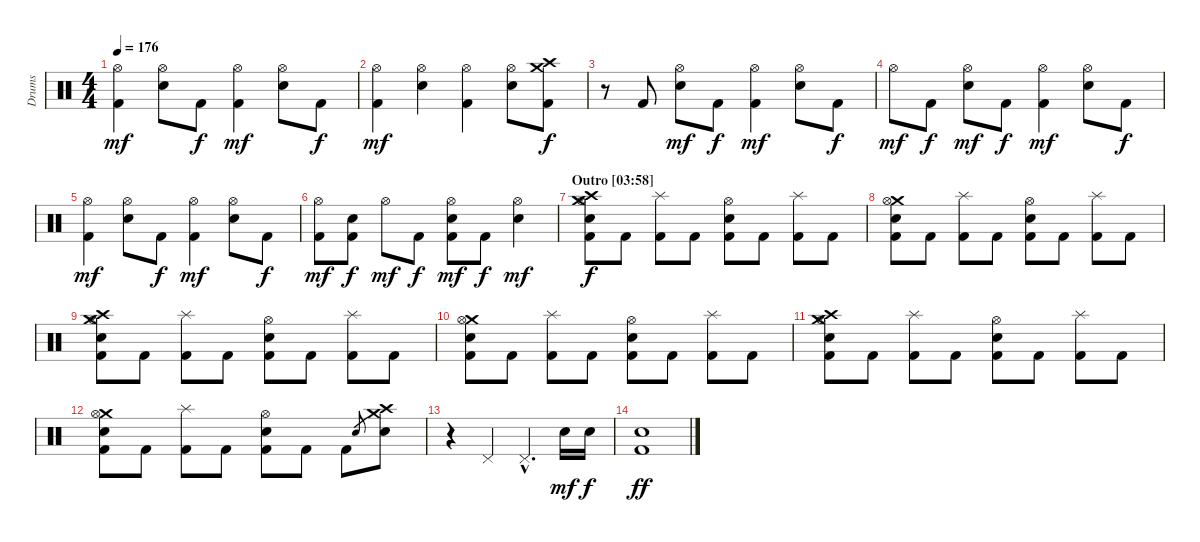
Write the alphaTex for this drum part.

\track ("Drums" "Drums") {instrument percussion}
\staff {score}
\articulation defaults
\ts (4 4)
\tempo 176
\clef neutral
\ks c
("Hi-Hat (open)" "Kick (hit) 2").4{dy mf} ("Hi-Hat (open)" "Electric Snare (hit)").8 "Kick (hit) 2".8{dy f} ("Hi-Hat (open)" "Kick (hit) 2").4{dy mf} ("Hi-Hat (open)" "Electric Snare (hit)").8 "Kick (hit) 2".8{dy f} |
("Hi-Hat (open)" "Kick (hit) 2").4{dy mf} ("Hi-Hat (open)" "Electric Snare (hit)").4 ("Hi-Hat (open)" "Kick (hit) 2").4 ("Hi-Hat (open)" "Electric Snare (hit)").8 ("Crash medium (hit)" "Crash high (hit)" "Kick (hit) 2").8{dy f} |
r.8 "Kick (hit) 2".8 ("Hi-Hat (open)" "Electric Snare (hit)").8{dy mf} "Kick (hit) 2".8{dy f} ("Hi-Hat (open)" "Kick (hit) 2").4{dy mf} ("Hi-Hat (open)" "Electric Snare (hit)").8 "Kick (hit) 2".8{dy f} |
"Hi-Hat (open)".8{dy mf} "Kick (hit) 2".8{dy f} ("Hi-Hat (open)" "Electric Snare (hit)").8{dy mf} "Kick (hit) 2".8{dy f} ("Hi-Hat (open)" "Kick (hit) 2").4{dy mf} ("Hi-Hat (open)" "Electric Snare (hit)").8 "Kick (hit) 2".8{dy f} |
("Hi-Hat (open)" "Kick (hit) 2").4{dy mf} ("Hi-Hat (open)" "Electric Snare (hit)").8 "Kick (hit) 2".8{dy f} ("Hi-Hat (open)" "Kick (hit) 2").4{dy mf} ("Hi-Hat (open)" "Electric Snare (hit)").8 "Kick (hit) 2".8{dy f} |
("Hi-Hat (open)" "Kick (hit) 2").8{dy mf} ("Electric Snare (hit)" "Kick (hit) 2").8{dy f} "Hi-Hat (open)".8{dy mf} "Kick (hit) 2".8{dy f} ("Hi-Hat (open)" "Electric Snare (hit)" "Kick (hit) 2").8{dy mf} "Kick (hit) 2".8{dy f} ("Hi-Hat (open)" "Electric Snare (hit)").4{dy mf} |
\section ("" "Outro [03:58]")
("Crash medium (hit)" "Hi-Hat (open)" "Crash high (hit)" "Electric Snare (hit)" "Kick (hit) 2").8{dy f} "Kick (hit) 2".8 ("Splash (hit)" "Kick (hit) 2").8 "Kick (hit) 2".8 ("Hi-Hat (open)" "Electric Snare (hit)" "Kick (hit) 2").8 "Kick (hit) 2".8 ("Splash (hit)" "Kick (hit) 2").8 "Kick (hit) 2".8 |
("Crash medium (hit)" "Hi-Hat (open)" "Electric Snare (hit)" "Kick (hit) 2").8 "Kick (hit) 2".8 ("Splash (hit)" "Kick (hit) 2").8 "Kick (hit) 2".8 ("Hi-Hat (open)" "Electric Snare (hit)" "Kick (hit) 2").8 "Kick (hit) 2".8 ("Splash (hit)" "Kick (hit) 2").8 "Kick (hit) 2".8 |
("Crash medium (hit)" "Hi-Hat (open)" "Crash high (hit)" "Electric Snare (hit)" "Kick (hit) 2").8 "Kick (hit) 2".8 ("Splash (hit)" "Kick (hit) 2").8 "Kick (hit) 2".8 ("Hi-Hat (open)" "Electric Snare (hit)" "Kick (hit) 2").8 "Kick (hit) 2".8 ("Splash (hit)" "Kick (hit) 2").8 "Kick (hit) 2".8 |
("Crash medium (hit)" "Hi-Hat (open)" "Electric Snare (hit)" "Kick (hit) 2").8 "Kick (hit) 2".8 ("Splash (hit)" "Kick (hit) 2").8 "Kick (hit) 2".8 ("Hi-Hat (open)" "Electric Snare (hit)" "Kick (hit) 2").8 "Kick (hit) 2".8 ("Splash (hit)" "Kick (hit) 2").8 "Kick (hit) 2".8 |
("Crash medium (hit)" "Hi-Hat (open)" "Crash high (hit)" "Electric Snare (hit)" "Kick (hit) 2").8 "Kick (hit) 2".8 ("Splash (hit)" "Kick (hit) 2").8 "Kick (hit) 2".8 ("Hi-Hat (open)" "Electric Snare (hit)" "Kick (hit) 2").8 "Kick (hit) 2".8 ("Splash (hit)" "Kick (hit) 2").8 "Kick (hit) 2".8 |
("Crash medium (hit)" "Hi-Hat (open)" "Electric Snare (hit)" "Kick (hit) 2").8 "Kick (hit) 2".8 ("Splash (hit)" "Kick (hit) 2").8 "Kick (hit) 2".8 ("Hi-Hat (open)" "Electric Snare (hit)" "Kick (hit) 2").8 "Kick (hit) 2".8 "Kick (hit) 2".8 "Snare (hit) 2".8{gr} ("Crash medium (hit)" "Crash high (hit)" "Electric Snare (hit)").8 |
r.4 "Pedal Hi-Hat (hit)".4 "Pedal Hi-Hat (hit)"{hac}.4{d} "Electric Snare (hit)".16{dy mf} "Electric Snare (hit)".16{dy f} |
("Electric Snare (hit)" "Kick (hit) 2").1{dy ff}
